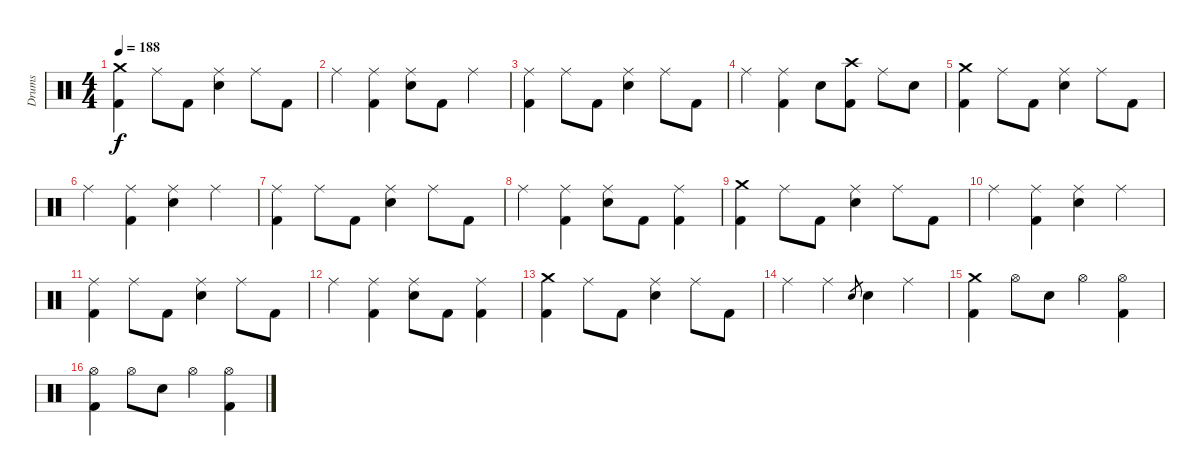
\track ("Drums" "Drums") {instrument percussion}
\staff {score}
\articulation defaults
\ts (4 4)
\tempo 188
\clef neutral
\ks c
("Crash medium (hit)" "Kick (hit) 2").4{dy f} "Ride (middle)".8 "Kick (hit) 2".8 ("Ride (middle)" "Electric Snare (hit)").4 "Ride (middle)".8 "Kick (hit) 2".8 |
"Ride (middle)".4 ("Ride (middle)" "Kick (hit) 2").4 ("Ride (middle)" "Electric Snare (hit)").8 "Kick (hit) 2".8 "Ride (middle)".4 |
("Ride (middle)" "Kick (hit) 2").4 "Ride (middle)".8 "Kick (hit) 2".8 ("Ride (middle)" "Electric Snare (hit)").4 "Ride (middle)".8 "Kick (hit) 2".8 |
"Ride (middle)".4 ("Ride (middle)" "Kick (hit) 2").4 "Electric Snare (hit)".8 ("Crash high (hit)" "Kick (hit) 2").8 "Ride (middle)".8 "Electric Snare (hit)".8 |
("Crash medium (hit)" "Kick (hit) 2").4 "Ride (middle)".8 "Kick (hit) 2".8 ("Ride (middle)" "Electric Snare (hit)").4 "Ride (middle)".8 "Kick (hit) 2".8 |
"Ride (middle)".4 ("Ride (middle)" "Kick (hit) 2").4 ("Ride (middle)" "Electric Snare (hit)").4 "Ride (middle)".4 |
("Ride (middle)" "Kick (hit) 2").4 "Ride (middle)".8 "Kick (hit) 2".8 ("Ride (middle)" "Electric Snare (hit)").4 "Ride (middle)".8 "Kick (hit) 2".8 |
"Ride (middle)".4 ("Ride (middle)" "Kick (hit) 2").4 ("Ride (middle)" "Electric Snare (hit)").8 "Kick (hit) 2".8 ("Ride (middle)" "Kick (hit) 2").4 |
("Crash medium (hit)" "Kick (hit) 2").4 "Ride (middle)".8 "Kick (hit) 2".8 ("Ride (middle)" "Electric Snare (hit)").4 "Ride (middle)".8 "Kick (hit) 2".8 |
"Ride (middle)".4 ("Ride (middle)" "Kick (hit) 2").4 ("Ride (middle)" "Electric Snare (hit)").4 "Ride (middle)".4 |
("Ride (middle)" "Kick (hit) 2").4 "Ride (middle)".8 "Kick (hit) 2".8 ("Ride (middle)" "Electric Snare (hit)").4 "Ride (middle)".8 "Kick (hit) 2".8 |
"Ride (middle)".4 ("Ride (middle)" "Kick (hit) 2").4 ("Ride (middle)" "Electric Snare (hit)").8 "Kick (hit) 2".8 ("Ride (middle)" "Kick (hit) 2").4 |
("Crash medium (hit)" "Kick (hit) 2").4 "Ride (middle)".8 "Kick (hit) 2".8 ("Ride (middle)" "Electric Snare (hit)").4 "Ride (middle)".8 "Kick (hit) 2".8 |
"Ride (middle)".4 "Ride (middle)".4 "Electric Snare (hit)".8{gr} "Electric Snare (hit)".4 "Ride (middle)".4 |
("Crash medium (hit)" "Kick (hit) 2").4 "Hi-Hat (open)".8 "Electric Snare (hit)".8 "Hi-Hat (open)".4 ("Hi-Hat (open)" "Kick (hit) 2").4 |
("Hi-Hat (open)" "Kick (hit) 2").4 "Hi-Hat (open)".8 "Electric Snare (hit)".8 "Hi-Hat (open)".4 ("Hi-Hat (open)" "Kick (hit) 2").4
